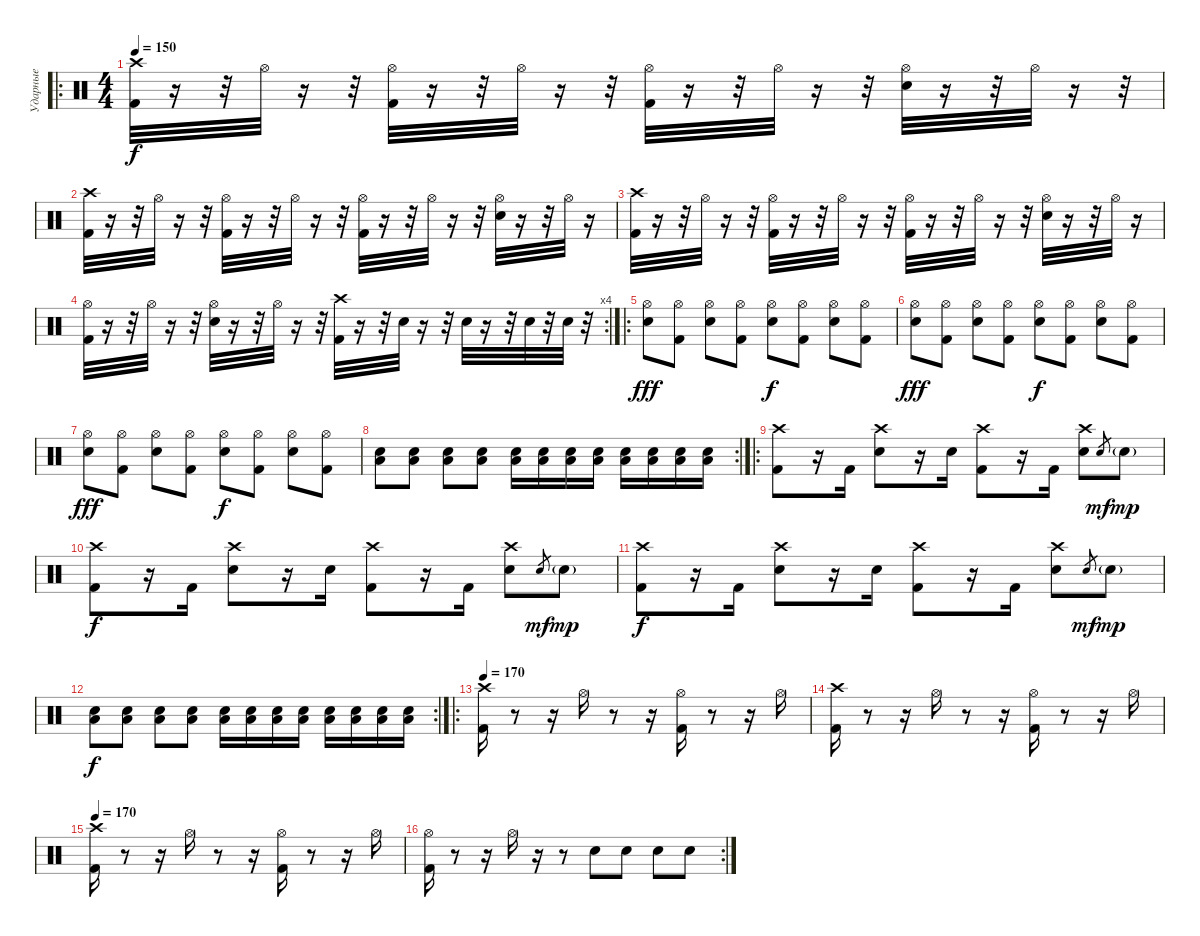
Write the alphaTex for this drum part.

\track ("Ударные" "Ударные") {instrument percussion}
\staff {score}
\articulation defaults
\ro
\ts (4 4)
\tempo 150
\clef neutral
\ks c
("Kick (hit) 2" "Crash high (hit)").32{dy f} r.16 r.32 "Hi-Hat (open)".32 r.16 r.32 ("Hi-Hat (open)" "Kick (hit) 2").32 r.16 r.32 "Hi-Hat (open)".32 r.16 r.32 ("Hi-Hat (open)" "Kick (hit) 2").32 r.16 r.32 "Hi-Hat (open)".32 r.16 r.32 ("Snare (hit) 2" "Hi-Hat (open)").32 r.16 r.32 "Hi-Hat (open)".32 r.16 r.32 |
("Kick (hit) 2" "Crash high (hit)").32 r.16 r.32 "Hi-Hat (open)".32 r.16 r.32 ("Hi-Hat (open)" "Kick (hit) 2").32 r.16 r.32 "Hi-Hat (open)".32 r.16 r.32 ("Hi-Hat (open)" "Kick (hit) 2").32 r.16 r.32 "Hi-Hat (open)".32 r.16 r.32 ("Snare (hit) 2" "Hi-Hat (open)").32 r.16 r.32 "Hi-Hat (open)".32 r.16 |
("Kick (hit) 2" "Crash high (hit)").32 r.16 r.32 "Hi-Hat (open)".32 r.16 r.32 ("Hi-Hat (open)" "Kick (hit) 2").32 r.16 r.32 "Hi-Hat (open)".32 r.16 r.32 ("Hi-Hat (open)" "Kick (hit) 2").32 r.16 r.32 "Hi-Hat (open)".32 r.16 r.32 ("Snare (hit) 2" "Hi-Hat (open)").32 r.16 r.32 "Hi-Hat (open)".32 r.16 |
\rc 4
("Kick (hit) 2" "Hi-Hat (open)").32 r.16 r.32 "Hi-Hat (open)".32 r.16 r.32 ("Snare (hit) 2" "Hi-Hat (open)").32 r.16 r.32 "Hi-Hat (open)".32 r.16 r.32 ("Crash high (hit)" "Kick (hit) 2").32 r.16 r.32 "Snare (hit) 2".32 r.16 r.32 "Snare (hit) 2".32 r.16 r.32 "Snare (hit) 2".32 r.32 "Snare (hit) 2".32 r.32 |
\ro
("Hi-Hat (open)" "Snare (hit) 2").8{dy fff} ("Hi-Hat (open)" "Kick (hit) 2").8 ("Hi-Hat (open)" "Snare (hit) 2").8 ("Hi-Hat (open)" "Kick (hit) 2").8 ("Hi-Hat (open)" "Snare (hit) 2").8{dy f} ("Hi-Hat (open)" "Kick (hit) 2").8 ("Hi-Hat (open)" "Snare (hit) 2").8 ("Hi-Hat (open)" "Kick (hit) 2").8 |
("Hi-Hat (open)" "Snare (hit) 2").8{dy fff} ("Hi-Hat (open)" "Kick (hit) 2").8 ("Hi-Hat (open)" "Snare (hit) 2").8 ("Hi-Hat (open)" "Kick (hit) 2").8 ("Hi-Hat (open)" "Snare (hit) 2").8{dy f} ("Hi-Hat (open)" "Kick (hit) 2").8 ("Hi-Hat (open)" "Snare (hit) 2").8 ("Hi-Hat (open)" "Kick (hit) 2").8 |
("Hi-Hat (open)" "Snare (hit) 2").8{dy fff} ("Hi-Hat (open)" "Kick (hit) 2").8 ("Hi-Hat (open)" "Snare (hit) 2").8 ("Hi-Hat (open)" "Kick (hit) 2").8 ("Hi-Hat (open)" "Snare (hit) 2").8{dy f} ("Hi-Hat (open)" "Kick (hit) 2").8 ("Hi-Hat (open)" "Snare (hit) 2").8 ("Hi-Hat (open)" "Kick (hit) 2").8 |
\rc 2
("Low Tom (hit)" "Snare (hit) 2").8 ("Low Tom (hit)" "Snare (hit) 2").8 ("Low Tom (hit)" "Snare (hit) 2").8 ("Low Tom (hit)" "Snare (hit) 2").8 ("Low Tom (hit)" "Snare (hit) 2").16 ("Low Tom (hit)" "Snare (hit) 2").16 ("Low Tom (hit)" "Snare (hit) 2").16 ("Low Tom (hit)" "Snare (hit) 2").16 ("Low Tom (hit)" "Snare (hit) 2").16 ("Low Tom (hit)" "Snare (hit) 2").16 ("Low Tom (hit)" "Snare (hit) 2").16 ("Low Tom (hit)" "Snare (hit) 2").16 |
\ro
("Crash high (hit)" "Kick (hit) 2").8 r.16 "Kick (hit) 2".16 ("Crash high (hit)" "Electric Snare (hit)").8 r.16 "Electric Snare (hit)".16 ("Crash high (hit)" "Kick (hit) 2").8 r.16 "Kick (hit) 2".16 ("Crash high (hit)" "Electric Snare (hit)").8 "Electric Snare (hit)".8{gr dy mf} "Electric Snare (hit)"{g}.8{dy mp} |
("Crash high (hit)" "Kick (hit) 2").8{dy f} r.16 "Kick (hit) 2".16 ("Crash high (hit)" "Electric Snare (hit)").8 r.16 "Electric Snare (hit)".16 ("Crash high (hit)" "Kick (hit) 2").8 r.16 "Kick (hit) 2".16 ("Crash high (hit)" "Electric Snare (hit)").8 "Electric Snare (hit)".8{gr dy mf} "Electric Snare (hit)"{g}.8{dy mp} |
("Crash high (hit)" "Kick (hit) 2").8{dy f} r.16 "Kick (hit) 2".16 ("Crash high (hit)" "Electric Snare (hit)").8 r.16 "Electric Snare (hit)".16 ("Crash high (hit)" "Kick (hit) 2").8 r.16 "Kick (hit) 2".16 ("Crash high (hit)" "Electric Snare (hit)").8 "Electric Snare (hit)".8{gr dy mf} "Electric Snare (hit)"{g}.8{dy mp} |
\rc 2
("Low Tom (hit)" "Snare (hit) 2").8{dy f} ("Low Tom (hit)" "Snare (hit) 2").8 ("Low Tom (hit)" "Snare (hit) 2").8 ("Low Tom (hit)" "Snare (hit) 2").8 ("Low Tom (hit)" "Snare (hit) 2").16 ("Low Tom (hit)" "Snare (hit) 2").16 ("Low Tom (hit)" "Snare (hit) 2").16 ("Low Tom (hit)" "Snare (hit) 2").16 ("Low Tom (hit)" "Snare (hit) 2").16 ("Low Tom (hit)" "Snare (hit) 2").16 ("Low Tom (hit)" "Snare (hit) 2").16 ("Low Tom (hit)" "Snare (hit) 2").16 |
\ro
\tempo 170
("Kick (hit) 2" "Crash high (hit)").16 r.8 r.16 "Hi-Hat (open)".16 r.8 r.16 ("Hi-Hat (open)" "Kick (hit) 2").16 r.8 r.16 "Hi-Hat (open)".16 |
("Kick (hit) 2" "Crash high (hit)").16 r.8 r.16 "Hi-Hat (open)".16 r.8 r.16 ("Hi-Hat (open)" "Kick (hit) 2").16 r.8 r.16 "Hi-Hat (open)".16 |
\tempo 170
("Kick (hit) 2" "Crash high (hit)").16 r.8 r.16 "Hi-Hat (open)".16 r.8 r.16 ("Hi-Hat (open)" "Kick (hit) 2").16 r.8 r.16 "Hi-Hat (open)".16 |
\rc 2
("Kick (hit) 2" "Hi-Hat (open)").16 r.8 r.16 "Hi-Hat (open)".16 r.16 r.8 "Snare (hit) 2".8 "Snare (hit) 2".8 "Snare (hit) 2".8 "Snare (hit) 2".8
